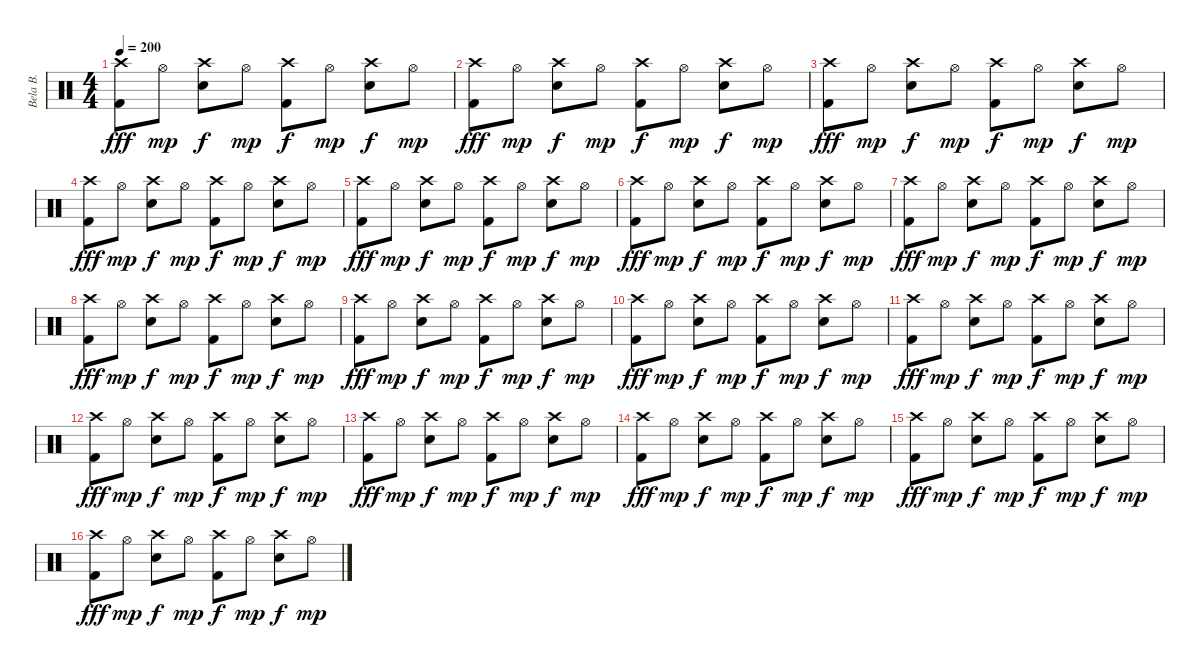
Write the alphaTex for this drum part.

\track ("Bela B. " "Bela B. ") {instrument percussion}
\staff {score}
\articulation defaults
\ts (4 4)
\tempo 200
\clef neutral
\ks c
("Crash high (hit)" "Kick (hit) 2").8{dy fff} "Hi-Hat (open)".8{dy mp} ("Crash high (hit)" "Snare (hit) 2").8{dy f} "Hi-Hat (open)".8{dy mp} ("Crash high (hit)" "Kick (hit) 2").8{dy f} "Hi-Hat (open)".8{dy mp} ("Crash high (hit)" "Snare (hit) 2").8{dy f} "Hi-Hat (open)".8{dy mp} |
("Crash high (hit)" "Kick (hit) 2").8{dy fff} "Hi-Hat (open)".8{dy mp} ("Crash high (hit)" "Snare (hit) 2").8{dy f} "Hi-Hat (open)".8{dy mp} ("Crash high (hit)" "Kick (hit) 2").8{dy f} "Hi-Hat (open)".8{dy mp} ("Crash high (hit)" "Snare (hit) 2").8{dy f} "Hi-Hat (open)".8{dy mp} |
("Crash high (hit)" "Kick (hit) 2").8{dy fff} "Hi-Hat (open)".8{dy mp} ("Crash high (hit)" "Snare (hit) 2").8{dy f} "Hi-Hat (open)".8{dy mp} ("Crash high (hit)" "Kick (hit) 2").8{dy f} "Hi-Hat (open)".8{dy mp} ("Crash high (hit)" "Snare (hit) 2").8{dy f} "Hi-Hat (open)".8{dy mp} |
("Crash high (hit)" "Kick (hit) 2").8{dy fff} "Hi-Hat (open)".8{dy mp} ("Crash high (hit)" "Snare (hit) 2").8{dy f} "Hi-Hat (open)".8{dy mp} ("Crash high (hit)" "Kick (hit) 2").8{dy f} "Hi-Hat (open)".8{dy mp} ("Crash high (hit)" "Snare (hit) 2").8{dy f} "Hi-Hat (open)".8{dy mp} |
("Crash high (hit)" "Kick (hit) 2").8{dy fff} "Hi-Hat (open)".8{dy mp} ("Crash high (hit)" "Snare (hit) 2").8{dy f} "Hi-Hat (open)".8{dy mp} ("Crash high (hit)" "Kick (hit) 2").8{dy f} "Hi-Hat (open)".8{dy mp} ("Crash high (hit)" "Snare (hit) 2").8{dy f} "Hi-Hat (open)".8{dy mp} |
("Crash high (hit)" "Kick (hit) 2").8{dy fff} "Hi-Hat (open)".8{dy mp} ("Crash high (hit)" "Snare (hit) 2").8{dy f} "Hi-Hat (open)".8{dy mp} ("Crash high (hit)" "Kick (hit) 2").8{dy f} "Hi-Hat (open)".8{dy mp} ("Crash high (hit)" "Snare (hit) 2").8{dy f} "Hi-Hat (open)".8{dy mp} |
("Crash high (hit)" "Kick (hit) 2").8{dy fff} "Hi-Hat (open)".8{dy mp} ("Crash high (hit)" "Snare (hit) 2").8{dy f} "Hi-Hat (open)".8{dy mp} ("Crash high (hit)" "Kick (hit) 2").8{dy f} "Hi-Hat (open)".8{dy mp} ("Crash high (hit)" "Snare (hit) 2").8{dy f} "Hi-Hat (open)".8{dy mp} |
("Crash high (hit)" "Kick (hit) 2").8{dy fff} "Hi-Hat (open)".8{dy mp} ("Crash high (hit)" "Snare (hit) 2").8{dy f} "Hi-Hat (open)".8{dy mp} ("Crash high (hit)" "Kick (hit) 2").8{dy f} "Hi-Hat (open)".8{dy mp} ("Crash high (hit)" "Snare (hit) 2").8{dy f} "Hi-Hat (open)".8{dy mp} |
("Crash high (hit)" "Kick (hit) 2").8{dy fff} "Hi-Hat (open)".8{dy mp} ("Crash high (hit)" "Snare (hit) 2").8{dy f} "Hi-Hat (open)".8{dy mp} ("Crash high (hit)" "Kick (hit) 2").8{dy f} "Hi-Hat (open)".8{dy mp} ("Crash high (hit)" "Snare (hit) 2").8{dy f} "Hi-Hat (open)".8{dy mp} |
("Crash high (hit)" "Kick (hit) 2").8{dy fff} "Hi-Hat (open)".8{dy mp} ("Crash high (hit)" "Snare (hit) 2").8{dy f} "Hi-Hat (open)".8{dy mp} ("Crash high (hit)" "Kick (hit) 2").8{dy f} "Hi-Hat (open)".8{dy mp} ("Crash high (hit)" "Snare (hit) 2").8{dy f} "Hi-Hat (open)".8{dy mp} |
("Crash high (hit)" "Kick (hit) 2").8{dy fff} "Hi-Hat (open)".8{dy mp} ("Crash high (hit)" "Snare (hit) 2").8{dy f} "Hi-Hat (open)".8{dy mp} ("Crash high (hit)" "Kick (hit) 2").8{dy f} "Hi-Hat (open)".8{dy mp} ("Crash high (hit)" "Snare (hit) 2").8{dy f} "Hi-Hat (open)".8{dy mp} |
("Crash high (hit)" "Kick (hit) 2").8{dy fff} "Hi-Hat (open)".8{dy mp} ("Crash high (hit)" "Snare (hit) 2").8{dy f} "Hi-Hat (open)".8{dy mp} ("Crash high (hit)" "Kick (hit) 2").8{dy f} "Hi-Hat (open)".8{dy mp} ("Crash high (hit)" "Snare (hit) 2").8{dy f} "Hi-Hat (open)".8{dy mp} |
("Crash high (hit)" "Kick (hit) 2").8{dy fff} "Hi-Hat (open)".8{dy mp} ("Crash high (hit)" "Snare (hit) 2").8{dy f} "Hi-Hat (open)".8{dy mp} ("Crash high (hit)" "Kick (hit) 2").8{dy f} "Hi-Hat (open)".8{dy mp} ("Crash high (hit)" "Snare (hit) 2").8{dy f} "Hi-Hat (open)".8{dy mp} |
("Crash high (hit)" "Kick (hit) 2").8{dy fff} "Hi-Hat (open)".8{dy mp} ("Crash high (hit)" "Snare (hit) 2").8{dy f} "Hi-Hat (open)".8{dy mp} ("Crash high (hit)" "Kick (hit) 2").8{dy f} "Hi-Hat (open)".8{dy mp} ("Crash high (hit)" "Snare (hit) 2").8{dy f} "Hi-Hat (open)".8{dy mp} |
("Crash high (hit)" "Kick (hit) 2").8{dy fff} "Hi-Hat (open)".8{dy mp} ("Crash high (hit)" "Snare (hit) 2").8{dy f} "Hi-Hat (open)".8{dy mp} ("Crash high (hit)" "Kick (hit) 2").8{dy f} "Hi-Hat (open)".8{dy mp} ("Crash high (hit)" "Snare (hit) 2").8{dy f} "Hi-Hat (open)".8{dy mp} |
("Crash high (hit)" "Kick (hit) 2").8{dy fff} "Hi-Hat (open)".8{dy mp} ("Crash high (hit)" "Snare (hit) 2").8{dy f} "Hi-Hat (open)".8{dy mp} ("Crash high (hit)" "Kick (hit) 2").8{dy f} "Hi-Hat (open)".8{dy mp} ("Crash high (hit)" "Snare (hit) 2").8{dy f} "Hi-Hat (open)".8{dy mp}
